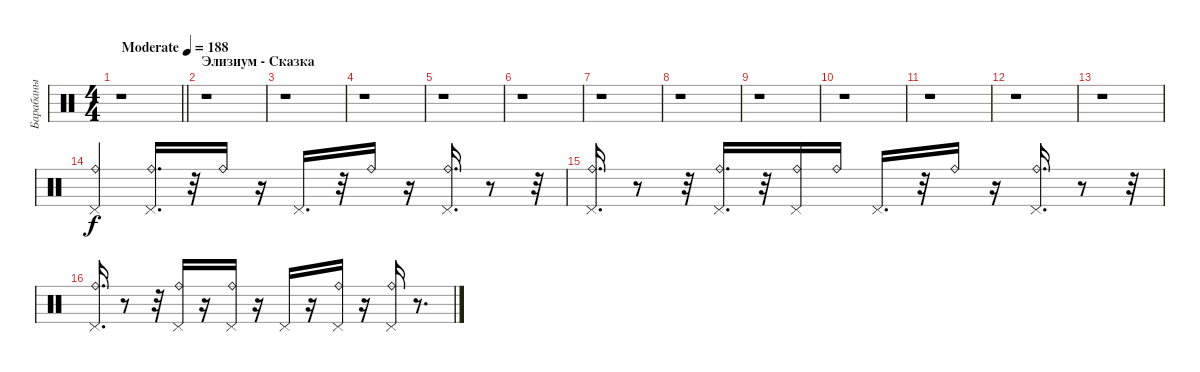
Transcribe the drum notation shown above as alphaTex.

\track ("Барабаны" "Барабаны") {instrument percussion}
\staff {score}
\articulation defaults
\ts (4 4)
\tempo (188 "Moderate")
\clef neutral
\barLineRight lightlight
\ks c
r.1{dy f} |
\section ("" "Элизиум - Сказка")
r.1 |
r.1 |
r.1 |
r.1 |
r.1 |
r.1 |
r.1 |
r.1 |
r.1 |
r.1 |
r.1 |
r.1 |
("Pedal Hi-Hat (hit)" "Ride (bell)").4 ("Pedal Hi-Hat (hit)" "Ride (bell)").16{d} r.32 "Ride (bell)".16 r.16 "Pedal Hi-Hat (hit)".16{d} r.32 "Ride (bell)".16 r.16 ("Pedal Hi-Hat (hit)" "Ride (bell)").16{d} r.8 r.32 |
("Pedal Hi-Hat (hit)" "Ride (bell)").16{d} r.8 r.32 ("Pedal Hi-Hat (hit)" "Ride (bell)").16{d} r.32 ("Pedal Hi-Hat (hit)" "Ride (bell)").16 "Ride (bell)".16 "Pedal Hi-Hat (hit)".16{d} r.32 "Ride (bell)".16 r.16 ("Pedal Hi-Hat (hit)" "Ride (bell)").16{d} r.8 r.32 |
("Pedal Hi-Hat (hit)" "Ride (bell)").16{d} r.8 r.32 ("Ride (bell)" "Pedal Hi-Hat (hit)").16 r.16 ("Pedal Hi-Hat (hit)" "Ride (bell)").16 r.16 "Pedal Hi-Hat (hit)".16 r.16 ("Pedal Hi-Hat (hit)" "Ride (bell)").16 r.16 ("Pedal Hi-Hat (hit)" "Ride (bell)").16 r.8{d}
